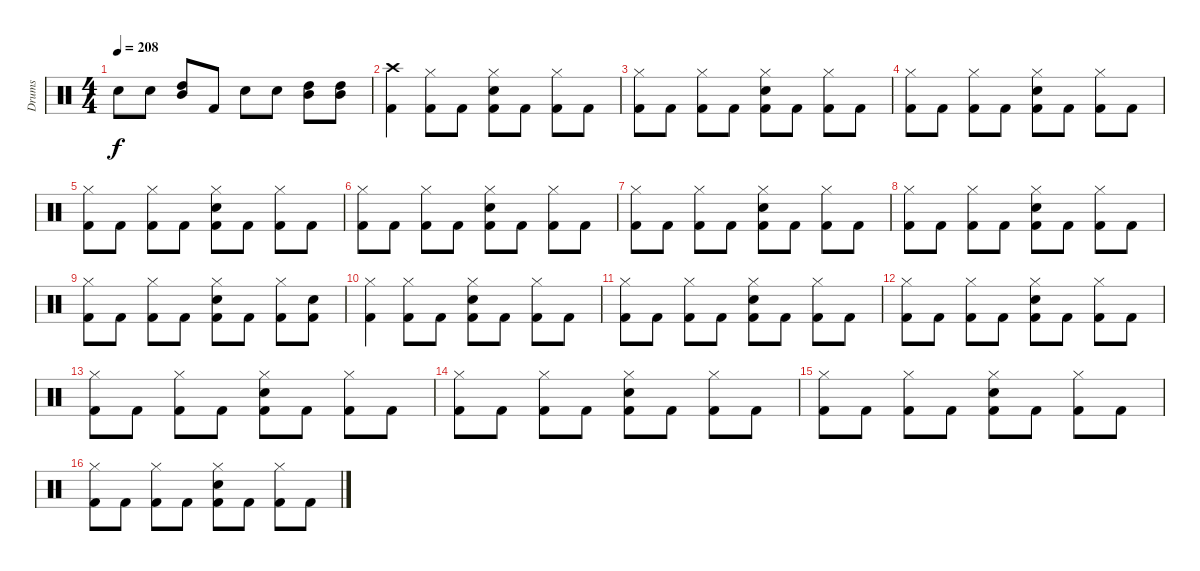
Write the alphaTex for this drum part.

\track ("Drums" "Drums") {instrument percussion}
\staff {score}
\articulation defaults
\ts (4 4)
\tempo 208
\clef neutral
\ks c "Electric Snare (hit)".8{dy f} "Electric Snare (hit)".8
("High Tom (hit)" "Mid Tom (hit)").8 "Kick (hit) 2".8 "Electric Snare (hit)".8 "Electric Snare (hit)".8 ("High Tom (hit)" "Mid Tom (hit)").8 ("High Tom (hit)" "Mid Tom (hit)").8 |
("Crash high (hit)" "Kick (hit) 2").4 ("Hi-Hat (closed)" "Kick (hit) 2").8 "Kick (hit) 2".8 ("Hi-Hat (closed)" "Electric Snare (hit)" "Kick (hit) 2").8 "Kick (hit) 2".8 ("Hi-Hat (closed)" "Kick (hit) 2").8 "Kick (hit) 2".8 |
("Hi-Hat (closed)" "Kick (hit) 2").8 "Kick (hit) 2".8 ("Hi-Hat (closed)" "Kick (hit) 2").8 "Kick (hit) 2".8 ("Hi-Hat (closed)" "Electric Snare (hit)" "Kick (hit) 2").8 "Kick (hit) 2".8 ("Hi-Hat (closed)" "Kick (hit) 2").8 "Kick (hit) 2".8 |
("Hi-Hat (closed)" "Kick (hit) 2").8 "Kick (hit) 2".8 ("Hi-Hat (closed)" "Kick (hit) 2").8 "Kick (hit) 2".8 ("Hi-Hat (closed)" "Electric Snare (hit)" "Kick (hit) 2").8 "Kick (hit) 2".8 ("Hi-Hat (closed)" "Kick (hit) 2").8 "Kick (hit) 2".8 |
("Hi-Hat (closed)" "Kick (hit) 2").8 "Kick (hit) 2".8 ("Hi-Hat (closed)" "Kick (hit) 2").8 "Kick (hit) 2".8 ("Hi-Hat (closed)" "Electric Snare (hit)" "Kick (hit) 2").8 "Kick (hit) 2".8 ("Hi-Hat (closed)" "Kick (hit) 2").8 "Kick (hit) 2".8 |
("Hi-Hat (closed)" "Kick (hit) 2").8 "Kick (hit) 2".8 ("Hi-Hat (closed)" "Kick (hit) 2").8 "Kick (hit) 2".8 ("Hi-Hat (closed)" "Electric Snare (hit)" "Kick (hit) 2").8 "Kick (hit) 2".8 ("Hi-Hat (closed)" "Kick (hit) 2").8 "Kick (hit) 2".8 |
("Hi-Hat (closed)" "Kick (hit) 2").8 "Kick (hit) 2".8 ("Hi-Hat (closed)" "Kick (hit) 2").8 "Kick (hit) 2".8 ("Hi-Hat (closed)" "Electric Snare (hit)" "Kick (hit) 2").8 "Kick (hit) 2".8 ("Hi-Hat (closed)" "Kick (hit) 2").8 "Kick (hit) 2".8 |
("Hi-Hat (closed)" "Kick (hit) 2").8 "Kick (hit) 2".8 ("Hi-Hat (closed)" "Kick (hit) 2").8 "Kick (hit) 2".8 ("Hi-Hat (closed)" "Electric Snare (hit)" "Kick (hit) 2").8 "Kick (hit) 2".8 ("Hi-Hat (closed)" "Kick (hit) 2").8 "Kick (hit) 2".8 |
("Hi-Hat (closed)" "Kick (hit) 2").8 "Kick (hit) 2".8 ("Hi-Hat (closed)" "Kick (hit) 2").8 "Kick (hit) 2".8 ("Hi-Hat (closed)" "Electric Snare (hit)" "Kick (hit) 2").8 "Kick (hit) 2".8 ("Hi-Hat (closed)" "Kick (hit) 2").8 ("Electric Snare (hit)" "Kick (hit) 2").8 |
("Hi-Hat (closed)" "Kick (hit) 2").4 ("Hi-Hat (closed)" "Kick (hit) 2").8 "Kick (hit) 2".8 ("Hi-Hat (closed)" "Electric Snare (hit)" "Kick (hit) 2").8 "Kick (hit) 2".8 ("Hi-Hat (closed)" "Kick (hit) 2").8 "Kick (hit) 2".8 |
("Hi-Hat (closed)" "Kick (hit) 2").8 "Kick (hit) 2".8 ("Hi-Hat (closed)" "Kick (hit) 2").8 "Kick (hit) 2".8 ("Hi-Hat (closed)" "Electric Snare (hit)" "Kick (hit) 2").8 "Kick (hit) 2".8 ("Hi-Hat (closed)" "Kick (hit) 2").8 "Kick (hit) 2".8 |
("Hi-Hat (closed)" "Kick (hit) 2").8 "Kick (hit) 2".8 ("Hi-Hat (closed)" "Kick (hit) 2").8 "Kick (hit) 2".8 ("Hi-Hat (closed)" "Electric Snare (hit)" "Kick (hit) 2").8 "Kick (hit) 2".8 ("Hi-Hat (closed)" "Kick (hit) 2").8 "Kick (hit) 2".8 |
("Hi-Hat (closed)" "Kick (hit) 2").8 "Kick (hit) 2".8 ("Hi-Hat (closed)" "Kick (hit) 2").8 "Kick (hit) 2".8 ("Hi-Hat (closed)" "Electric Snare (hit)" "Kick (hit) 2").8 "Kick (hit) 2".8 ("Hi-Hat (closed)" "Kick (hit) 2").8 "Kick (hit) 2".8 |
("Hi-Hat (closed)" "Kick (hit) 2").8 "Kick (hit) 2".8 ("Hi-Hat (closed)" "Kick (hit) 2").8 "Kick (hit) 2".8 ("Hi-Hat (closed)" "Electric Snare (hit)" "Kick (hit) 2").8 "Kick (hit) 2".8 ("Hi-Hat (closed)" "Kick (hit) 2").8 "Kick (hit) 2".8 |
("Hi-Hat (closed)" "Kick (hit) 2").8 "Kick (hit) 2".8 ("Hi-Hat (closed)" "Kick (hit) 2").8 "Kick (hit) 2".8 ("Hi-Hat (closed)" "Electric Snare (hit)" "Kick (hit) 2").8 "Kick (hit) 2".8 ("Hi-Hat (closed)" "Kick (hit) 2").8 "Kick (hit) 2".8 |
("Hi-Hat (closed)" "Kick (hit) 2").8 "Kick (hit) 2".8 ("Hi-Hat (closed)" "Kick (hit) 2").8 "Kick (hit) 2".8 ("Hi-Hat (closed)" "Electric Snare (hit)" "Kick (hit) 2").8 "Kick (hit) 2".8 ("Hi-Hat (closed)" "Kick (hit) 2").8 "Kick (hit) 2".8
